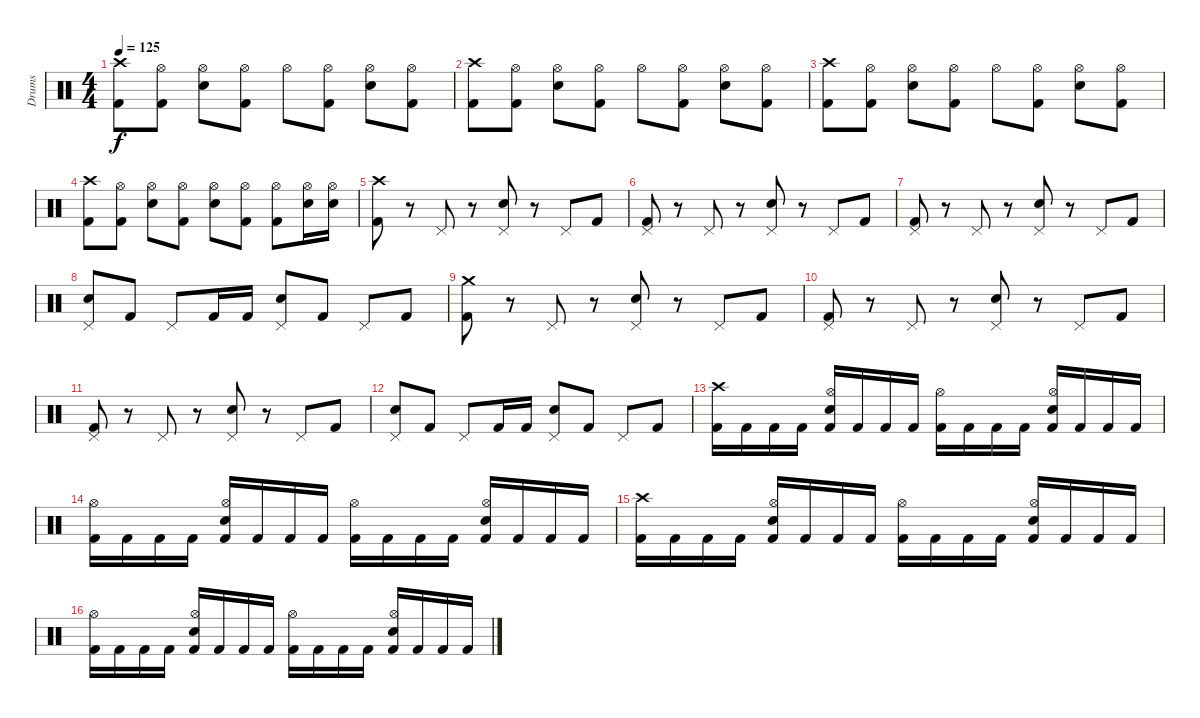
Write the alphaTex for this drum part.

\track ("Drums" "Drums") {instrument percussion}
\staff {score}
\articulation defaults
\ts (4 4)
\tempo 125
\clef neutral
\ks c
("Kick (hit) 2" "Crash high (hit)").8{dy f} ("Kick (hit) 2" "Hi-Hat (open)").8 ("Electric Snare (hit)" "Hi-Hat (open)").8 ("Kick (hit) 2" "Hi-Hat (open)").8 "Hi-Hat (open)".8 ("Kick (hit) 2" "Hi-Hat (open)").8 ("Electric Snare (hit)" "Hi-Hat (open)").8 ("Kick (hit) 2" "Hi-Hat (open)").8 |
("Kick (hit) 2" "Crash high (hit)").8 ("Kick (hit) 2" "Hi-Hat (open)").8 ("Electric Snare (hit)" "Hi-Hat (open)").8 ("Kick (hit) 2" "Hi-Hat (open)").8 "Hi-Hat (open)".8 ("Kick (hit) 2" "Hi-Hat (open)").8 ("Electric Snare (hit)" "Hi-Hat (open)").8 ("Kick (hit) 2" "Hi-Hat (open)").8 |
("Kick (hit) 2" "Crash high (hit)").8 ("Kick (hit) 2" "Hi-Hat (open)").8 ("Electric Snare (hit)" "Hi-Hat (open)").8 ("Kick (hit) 2" "Hi-Hat (open)").8 "Hi-Hat (open)".8 ("Kick (hit) 2" "Hi-Hat (open)").8 ("Electric Snare (hit)" "Hi-Hat (open)").8 ("Kick (hit) 2" "Hi-Hat (open)").8 |
("Kick (hit) 2" "Crash high (hit)").8 ("Kick (hit) 2" "Hi-Hat (open)").8 ("Electric Snare (hit)" "Hi-Hat (open)").8 ("Kick (hit) 2" "Hi-Hat (open)").8 ("Electric Snare (hit)" "Hi-Hat (open)").8 ("Kick (hit) 2" "Hi-Hat (open)").8 ("Kick (hit) 2" "Hi-Hat (open)").8 ("Electric Snare (hit)" "Hi-Hat (open)").16 ("Electric Snare (hit)" "Hi-Hat (open)").16 |
("Kick (hit) 2" "Crash high (hit)").8 r.8 "Pedal Hi-Hat (hit)".8 r.8 ("Electric Snare (hit)" "Pedal Hi-Hat (hit)").8 r.8 "Pedal Hi-Hat (hit)".8 "Kick (hit) 2".8 |
("Kick (hit) 2" "Pedal Hi-Hat (hit)").8 r.8 "Pedal Hi-Hat (hit)".8 r.8 ("Electric Snare (hit)" "Pedal Hi-Hat (hit)").8 r.8 "Pedal Hi-Hat (hit)".8 "Kick (hit) 2".8 |
("Kick (hit) 2" "Pedal Hi-Hat (hit)").8 r.8 "Pedal Hi-Hat (hit)".8 r.8 ("Electric Snare (hit)" "Pedal Hi-Hat (hit)").8 r.8 "Pedal Hi-Hat (hit)".8 "Kick (hit) 2".8 |
("Electric Snare (hit)" "Pedal Hi-Hat (hit)").8 "Kick (hit) 2".8 "Pedal Hi-Hat (hit)".8 "Kick (hit) 2".16 "Kick (hit) 2".16 ("Electric Snare (hit)" "Pedal Hi-Hat (hit)").8 "Kick (hit) 2".8 "Pedal Hi-Hat (hit)".8 "Kick (hit) 2".8 |
("Kick (hit) 2" "Crash medium (hit)").8 r.8 "Pedal Hi-Hat (hit)".8 r.8 ("Electric Snare (hit)" "Pedal Hi-Hat (hit)").8 r.8 "Pedal Hi-Hat (hit)".8 "Kick (hit) 2".8 |
("Kick (hit) 2" "Pedal Hi-Hat (hit)").8 r.8 "Pedal Hi-Hat (hit)".8 r.8 ("Electric Snare (hit)" "Pedal Hi-Hat (hit)").8 r.8 "Pedal Hi-Hat (hit)".8 "Kick (hit) 2".8 |
("Kick (hit) 2" "Pedal Hi-Hat (hit)").8 r.8 "Pedal Hi-Hat (hit)".8 r.8 ("Electric Snare (hit)" "Pedal Hi-Hat (hit)").8 r.8 "Pedal Hi-Hat (hit)".8 "Kick (hit) 2".8 |
("Electric Snare (hit)" "Pedal Hi-Hat (hit)").8 "Kick (hit) 2".8 "Pedal Hi-Hat (hit)".8 "Kick (hit) 2".16 "Kick (hit) 2".16 ("Electric Snare (hit)" "Pedal Hi-Hat (hit)").8 "Kick (hit) 2".8 "Pedal Hi-Hat (hit)".8 "Kick (hit) 2".8 |
("Kick (hit) 2" "Crash high (hit)").16 "Kick (hit) 2".16 "Kick (hit) 2".16 "Kick (hit) 2".16 ("Kick (hit) 2" "Electric Snare (hit)" "Hi-Hat (open)").16 "Kick (hit) 2".16 "Kick (hit) 2".16 "Kick (hit) 2".16 ("Kick (hit) 2" "Hi-Hat (open)").16 "Kick (hit) 2".16 "Kick (hit) 2".16 "Kick (hit) 2".16 ("Kick (hit) 2" "Electric Snare (hit)" "Hi-Hat (open)").16 "Kick (hit) 2".16 "Kick (hit) 2".16 "Kick (hit) 2".16 |
("Kick (hit) 2" "Hi-Hat (open)").16 "Kick (hit) 2".16 "Kick (hit) 2".16 "Kick (hit) 2".16 ("Kick (hit) 2" "Electric Snare (hit)" "Hi-Hat (open)").16 "Kick (hit) 2".16 "Kick (hit) 2".16 "Kick (hit) 2".16 ("Kick (hit) 2" "Hi-Hat (open)").16 "Kick (hit) 2".16 "Kick (hit) 2".16 "Kick (hit) 2".16 ("Kick (hit) 2" "Electric Snare (hit)" "Hi-Hat (open)").16 "Kick (hit) 2".16 "Kick (hit) 2".16 "Kick (hit) 2".16 |
("Kick (hit) 2" "Crash high (hit)").16 "Kick (hit) 2".16 "Kick (hit) 2".16 "Kick (hit) 2".16 ("Kick (hit) 2" "Electric Snare (hit)" "Hi-Hat (open)").16 "Kick (hit) 2".16 "Kick (hit) 2".16 "Kick (hit) 2".16 ("Kick (hit) 2" "Hi-Hat (open)").16 "Kick (hit) 2".16 "Kick (hit) 2".16 "Kick (hit) 2".16 ("Kick (hit) 2" "Electric Snare (hit)" "Hi-Hat (open)").16 "Kick (hit) 2".16 "Kick (hit) 2".16 "Kick (hit) 2".16 |
("Kick (hit) 2" "Hi-Hat (open)").16 "Kick (hit) 2".16 "Kick (hit) 2".16 "Kick (hit) 2".16 ("Kick (hit) 2" "Electric Snare (hit)" "Hi-Hat (open)").16 "Kick (hit) 2".16 "Kick (hit) 2".16 "Kick (hit) 2".16 ("Kick (hit) 2" "Hi-Hat (open)").16 "Kick (hit) 2".16 "Kick (hit) 2".16 "Kick (hit) 2".16 ("Kick (hit) 2" "Electric Snare (hit)" "Hi-Hat (open)").16 "Kick (hit) 2".16 "Kick (hit) 2".16 "Kick (hit) 2".16
